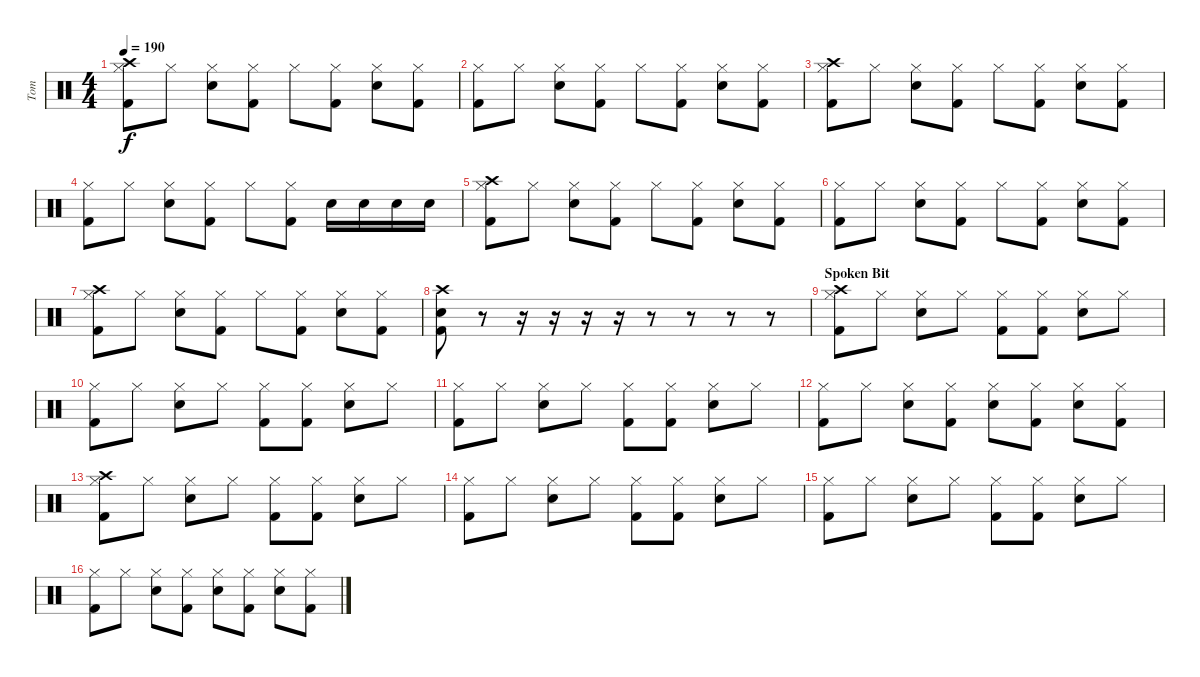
\track ("Tom" "Tom") {instrument percussion}
\staff {score}
\articulation defaults
\ts (4 4)
\tempo 190
\clef neutral
\ks c
("Crash high (hit)" "Hi-Hat (closed)" "Kick (hit) 2").8{dy f} "Hi-Hat (closed)".8 ("Hi-Hat (closed)" "Electric Snare (hit)").8 ("Hi-Hat (closed)" "Kick (hit) 2").8 "Hi-Hat (closed)".8 ("Hi-Hat (closed)" "Kick (hit) 2").8 ("Hi-Hat (closed)" "Electric Snare (hit)").8 ("Hi-Hat (closed)" "Kick (hit) 2").8 |
("Hi-Hat (closed)" "Kick (hit) 2").8 "Hi-Hat (closed)".8 ("Hi-Hat (closed)" "Electric Snare (hit)").8 ("Hi-Hat (closed)" "Kick (hit) 2").8 "Hi-Hat (closed)".8 ("Hi-Hat (closed)" "Kick (hit) 2").8 ("Hi-Hat (closed)" "Electric Snare (hit)").8 ("Hi-Hat (closed)" "Kick (hit) 2").8 |
("Crash high (hit)" "Hi-Hat (closed)" "Kick (hit) 2").8 "Hi-Hat (closed)".8 ("Hi-Hat (closed)" "Electric Snare (hit)").8 ("Hi-Hat (closed)" "Kick (hit) 2").8 "Hi-Hat (closed)".8 ("Hi-Hat (closed)" "Kick (hit) 2").8 ("Hi-Hat (closed)" "Electric Snare (hit)").8 ("Hi-Hat (closed)" "Kick (hit) 2").8 |
("Hi-Hat (closed)" "Kick (hit) 2").8 "Hi-Hat (closed)".8 ("Hi-Hat (closed)" "Electric Snare (hit)").8 ("Hi-Hat (closed)" "Kick (hit) 2").8 "Hi-Hat (closed)".8 ("Hi-Hat (closed)" "Kick (hit) 2").8 "Electric Snare (hit)".16 "Electric Snare (hit)".16 "Electric Snare (hit)".16 "Electric Snare (hit)".16 |
("Crash high (hit)" "Hi-Hat (closed)" "Kick (hit) 2").8 "Hi-Hat (closed)".8 ("Hi-Hat (closed)" "Electric Snare (hit)").8 ("Hi-Hat (closed)" "Kick (hit) 2").8 "Hi-Hat (closed)".8 ("Hi-Hat (closed)" "Kick (hit) 2").8 ("Hi-Hat (closed)" "Electric Snare (hit)").8 ("Hi-Hat (closed)" "Kick (hit) 2").8 |
("Hi-Hat (closed)" "Kick (hit) 2").8 "Hi-Hat (closed)".8 ("Hi-Hat (closed)" "Electric Snare (hit)").8 ("Hi-Hat (closed)" "Kick (hit) 2").8 "Hi-Hat (closed)".8 ("Hi-Hat (closed)" "Kick (hit) 2").8 ("Hi-Hat (closed)" "Electric Snare (hit)").8 ("Hi-Hat (closed)" "Kick (hit) 2").8 |
("Crash high (hit)" "Hi-Hat (closed)" "Kick (hit) 2").8 "Hi-Hat (closed)".8 ("Hi-Hat (closed)" "Electric Snare (hit)").8 ("Hi-Hat (closed)" "Kick (hit) 2").8 "Hi-Hat (closed)".8 ("Hi-Hat (closed)" "Kick (hit) 2").8 ("Hi-Hat (closed)" "Electric Snare (hit)").8 ("Hi-Hat (closed)" "Kick (hit) 2").8 |
("Crash high (hit)" "Electric Snare (hit)" "Kick (hit) 2").8 r.8 r.16 r.16 r.16 r.16 r.8 r.8 r.8 r.8 |
\section ("" "Spoken Bit")
("Crash high (hit)" "Hi-Hat (closed)" "Kick (hit) 2").8 "Hi-Hat (closed)".8 ("Hi-Hat (closed)" "Electric Snare (hit)").8 "Hi-Hat (closed)".8 ("Hi-Hat (closed)" "Kick (hit) 2").8 ("Hi-Hat (closed)" "Kick (hit) 2").8 ("Hi-Hat (closed)" "Electric Snare (hit)").8 "Hi-Hat (closed)".8 |
("Hi-Hat (closed)" "Kick (hit) 2").8 "Hi-Hat (closed)".8 ("Hi-Hat (closed)" "Electric Snare (hit)").8 "Hi-Hat (closed)".8 ("Hi-Hat (closed)" "Kick (hit) 2").8 ("Hi-Hat (closed)" "Kick (hit) 2").8 ("Hi-Hat (closed)" "Electric Snare (hit)").8 "Hi-Hat (closed)".8 |
("Hi-Hat (closed)" "Kick (hit) 2").8 "Hi-Hat (closed)".8 ("Hi-Hat (closed)" "Electric Snare (hit)").8 "Hi-Hat (closed)".8 ("Hi-Hat (closed)" "Kick (hit) 2").8 ("Hi-Hat (closed)" "Kick (hit) 2").8 ("Hi-Hat (closed)" "Electric Snare (hit)").8 "Hi-Hat (closed)".8 |
("Hi-Hat (closed)" "Kick (hit) 2").8 "Hi-Hat (closed)".8 ("Hi-Hat (closed)" "Electric Snare (hit)").8 ("Hi-Hat (closed)" "Kick (hit) 2").8 ("Hi-Hat (closed)" "Electric Snare (hit)").8 ("Hi-Hat (closed)" "Kick (hit) 2").8 ("Hi-Hat (closed)" "Electric Snare (hit)").8 ("Hi-Hat (closed)" "Kick (hit) 2").8 |
("Crash high (hit)" "Hi-Hat (closed)" "Kick (hit) 2").8 "Hi-Hat (closed)".8 ("Hi-Hat (closed)" "Electric Snare (hit)").8 "Hi-Hat (closed)".8 ("Hi-Hat (closed)" "Kick (hit) 2").8 ("Hi-Hat (closed)" "Kick (hit) 2").8 ("Hi-Hat (closed)" "Electric Snare (hit)").8 "Hi-Hat (closed)".8 |
("Hi-Hat (closed)" "Kick (hit) 2").8 "Hi-Hat (closed)".8 ("Hi-Hat (closed)" "Electric Snare (hit)").8 "Hi-Hat (closed)".8 ("Hi-Hat (closed)" "Kick (hit) 2").8 ("Hi-Hat (closed)" "Kick (hit) 2").8 ("Hi-Hat (closed)" "Electric Snare (hit)").8 "Hi-Hat (closed)".8 |
("Hi-Hat (closed)" "Kick (hit) 2").8 "Hi-Hat (closed)".8 ("Hi-Hat (closed)" "Electric Snare (hit)").8 "Hi-Hat (closed)".8 ("Hi-Hat (closed)" "Kick (hit) 2").8 ("Hi-Hat (closed)" "Kick (hit) 2").8 ("Hi-Hat (closed)" "Electric Snare (hit)").8 "Hi-Hat (closed)".8 |
("Hi-Hat (closed)" "Kick (hit) 2").8 "Hi-Hat (closed)".8 ("Hi-Hat (closed)" "Electric Snare (hit)").8 ("Hi-Hat (closed)" "Kick (hit) 2").8 ("Hi-Hat (closed)" "Electric Snare (hit)").8 ("Hi-Hat (closed)" "Kick (hit) 2").8 ("Hi-Hat (closed)" "Electric Snare (hit)").8 ("Hi-Hat (closed)" "Kick (hit) 2").8
